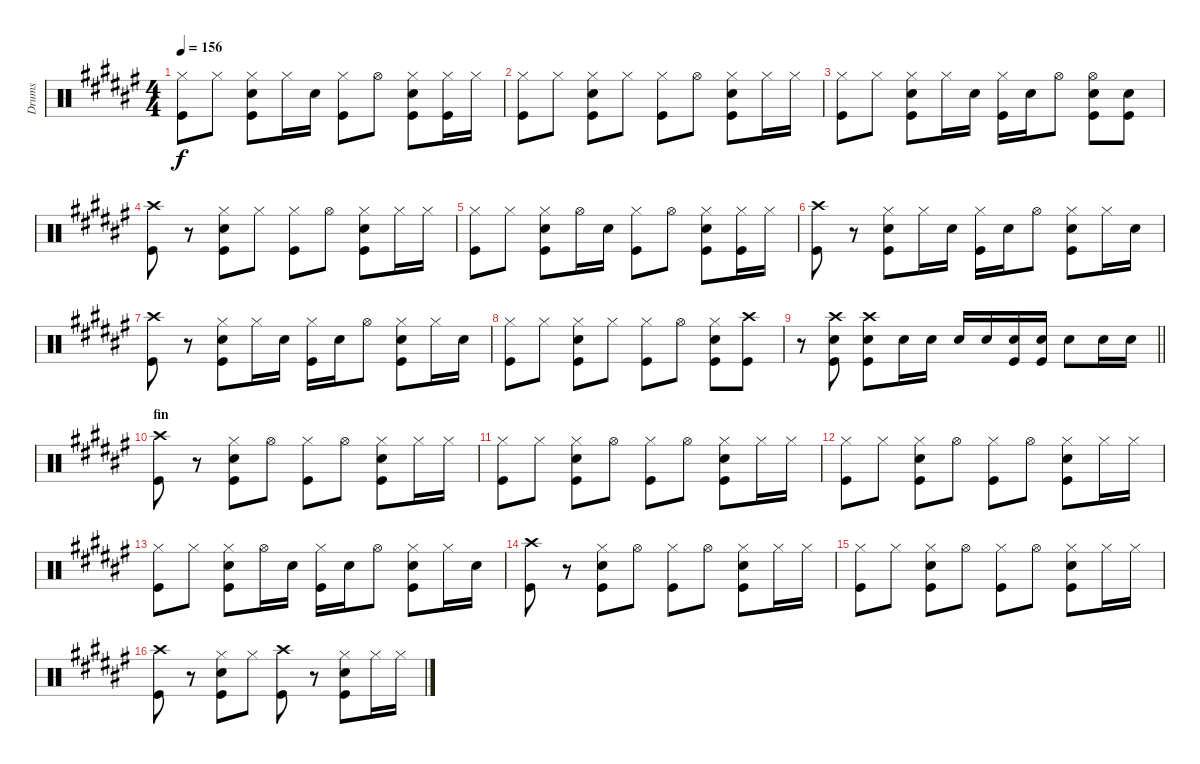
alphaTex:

\track ("Drums" "Drums") {instrument percussion}
\staff {score}
\articulation defaults
\ts (4 4)
\tempo 156
\clef neutral
\ks f#
("Hi-Hat (closed)" "Kick (hit)").8{dy f} "Hi-Hat (closed)".8 ("Hi-Hat (closed)" "Snare (hit) 2" "Kick (hit)").8 "Hi-Hat (closed)".16 "Snare (hit) 2".16 ("Hi-Hat (closed)" "Kick (hit)").8 "Hi-Hat (open)".8 ("Hi-Hat (closed)" "Snare (hit) 2" "Kick (hit)").8 ("Hi-Hat (closed)" "Kick (hit)").16 "Hi-Hat (closed)".16 |
("Hi-Hat (closed)" "Kick (hit)").8 "Hi-Hat (closed)".8 ("Hi-Hat (closed)" "Snare (hit) 2" "Kick (hit)").8 "Hi-Hat (closed)".8 ("Hi-Hat (closed)" "Kick (hit)").8 "Hi-Hat (open)".8 ("Hi-Hat (closed)" "Snare (hit) 2" "Kick (hit)").8 "Hi-Hat (closed)".16 "Hi-Hat (closed)".16 |
("Hi-Hat (closed)" "Kick (hit)").8 "Hi-Hat (closed)".8 ("Hi-Hat (closed)" "Snare (hit) 2" "Kick (hit)").8 "Hi-Hat (closed)".16 "Snare (hit) 2".16 ("Hi-Hat (closed)" "Kick (hit)").16 "Snare (hit) 2".16 "Hi-Hat (open)".8 ("Hi-Hat (open)" "Snare (hit) 2" "Kick (hit)").8 ("Snare (hit) 2" "Kick (hit)").8 |
("Crash high (hit)" "Kick (hit)").8 r.8 ("Hi-Hat (closed)" "Snare (hit) 2" "Kick (hit)").8 "Hi-Hat (closed)".8 ("Hi-Hat (closed)" "Kick (hit)").8 "Hi-Hat (open)".8 ("Hi-Hat (closed)" "Snare (hit) 2" "Kick (hit)").8 "Hi-Hat (closed)".16 "Hi-Hat (closed)".16 |
("Hi-Hat (closed)" "Kick (hit)").8 "Hi-Hat (closed)".8 ("Hi-Hat (closed)" "Snare (hit) 2" "Kick (hit)").8 "Hi-Hat (open)".16 "Snare (hit) 2".16 ("Hi-Hat (closed)" "Kick (hit)").8 "Hi-Hat (open)".8 ("Hi-Hat (closed)" "Snare (hit) 2" "Kick (hit)").8 ("Hi-Hat (closed)" "Kick (hit)").16 "Hi-Hat (closed)".16 |
("Crash high (hit)" "Kick (hit)").8 r.8 ("Hi-Hat (closed)" "Snare (hit) 2" "Kick (hit)").8 "Hi-Hat (closed)".16 "Snare (hit) 2".16 ("Hi-Hat (closed)" "Kick (hit)").16 "Snare (hit) 2".16 "Hi-Hat (open)".8 ("Hi-Hat (closed)" "Snare (hit) 2" "Kick (hit)").8 "Hi-Hat (closed)".16 "Snare (hit) 2".16 |
("Crash high (hit)" "Kick (hit)").8 r.8 ("Hi-Hat (closed)" "Snare (hit) 2" "Kick (hit)").8 "Hi-Hat (closed)".16 "Snare (hit) 2".16 ("Hi-Hat (closed)" "Kick (hit)").16 "Snare (hit) 2".16 "Hi-Hat (open)".8 ("Hi-Hat (closed)" "Snare (hit) 2" "Kick (hit)").8 "Hi-Hat (closed)".16 "Snare (hit) 2".16 |
("Hi-Hat (closed)" "Kick (hit)").8 "Hi-Hat (closed)".8 ("Hi-Hat (closed)" "Snare (hit) 2" "Kick (hit)").8 "Hi-Hat (closed)".8 ("Hi-Hat (closed)" "Kick (hit)").8 "Hi-Hat (open)".8 ("Hi-Hat (closed)" "Snare (hit) 2" "Kick (hit)").8 ("Crash high (hit)" "Kick (hit)").8 |
\barLineRight lightlight
r.8 ("Crash high (hit)" "Snare (hit) 2" "Kick (hit)").8 ("Crash high (hit)" "Snare (hit) 2" "Kick (hit)").8 "Snare (hit) 2".16 "Snare (hit) 2".16 "Snare (hit) 2".16 "Snare (hit) 2".16 ("Snare (hit) 2" "Kick (hit)").16 ("Snare (hit) 2" "Kick (hit)").16 "Snare (hit) 2".8 "Snare (hit) 2".16 "Snare (hit) 2".16 |
\section ("" "fin")
("Crash high (hit)" "Kick (hit)").8 r.8 ("Hi-Hat (closed)" "Snare (hit) 2" "Kick (hit)").8 "Hi-Hat (open)".8 ("Hi-Hat (closed)" "Kick (hit)").8 "Hi-Hat (open)".8 ("Hi-Hat (closed)" "Snare (hit) 2" "Kick (hit)").8 "Hi-Hat (closed)".16 "Hi-Hat (closed)".16 |
("Hi-Hat (closed)" "Kick (hit)").8 "Hi-Hat (closed)".8 ("Hi-Hat (closed)" "Snare (hit) 2" "Kick (hit)").8 "Hi-Hat (open)".8 ("Hi-Hat (closed)" "Kick (hit)").8 "Hi-Hat (open)".8 ("Hi-Hat (closed)" "Snare (hit) 2" "Kick (hit)").8 "Hi-Hat (closed)".16 "Hi-Hat (closed)".16 |
("Hi-Hat (closed)" "Kick (hit)").8 "Hi-Hat (closed)".8 ("Hi-Hat (closed)" "Snare (hit) 2" "Kick (hit)").8 "Hi-Hat (open)".8 ("Hi-Hat (closed)" "Kick (hit)").8 "Hi-Hat (open)".8 ("Hi-Hat (closed)" "Snare (hit) 2" "Kick (hit)").8 "Hi-Hat (closed)".16 "Hi-Hat (closed)".16 |
("Hi-Hat (closed)" "Kick (hit)").8 "Hi-Hat (closed)".8 ("Hi-Hat (closed)" "Snare (hit) 2" "Kick (hit)").8 "Hi-Hat (open)".16 "Snare (hit) 2".16 ("Hi-Hat (closed)" "Kick (hit)").16 "Snare (hit) 2".16 "Hi-Hat (open)".8 ("Hi-Hat (closed)" "Snare (hit) 2" "Kick (hit)").8 "Hi-Hat (closed)".16 "Snare (hit) 2".16 |
("Crash high (hit)" "Kick (hit)").8 r.8 ("Hi-Hat (closed)" "Snare (hit) 2" "Kick (hit)").8 "Hi-Hat (open)".8 ("Hi-Hat (closed)" "Kick (hit)").8 "Hi-Hat (open)".8 ("Hi-Hat (closed)" "Snare (hit) 2" "Kick (hit)").8 "Hi-Hat (closed)".16 "Hi-Hat (closed)".16 |
("Hi-Hat (closed)" "Kick (hit)").8 "Hi-Hat (closed)".8 ("Hi-Hat (closed)" "Snare (hit) 2" "Kick (hit)").8 "Hi-Hat (open)".8 ("Hi-Hat (closed)" "Kick (hit)").8 "Hi-Hat (open)".8 ("Hi-Hat (closed)" "Snare (hit) 2" "Kick (hit)").8 "Hi-Hat (closed)".16 "Hi-Hat (closed)".16 |
("Crash high (hit)" "Kick (hit)").8 r.8 ("Hi-Hat (closed)" "Snare (hit) 2" "Kick (hit)").8 "Hi-Hat (closed)".8 ("Crash high (hit)" "Kick (hit)").8 r.8 ("Hi-Hat (closed)" "Snare (hit) 2" "Kick (hit)").8 "Hi-Hat (closed)".16 "Hi-Hat (closed)".16
